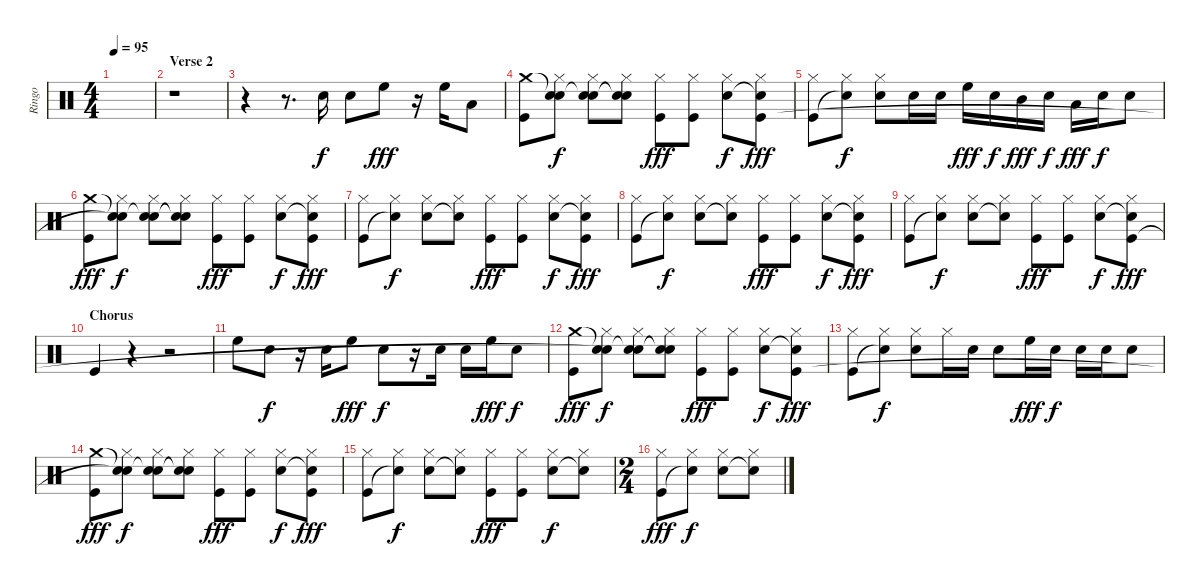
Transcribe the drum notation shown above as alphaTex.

\track ("Ringo" "Ringo") {instrument percussion}
\staff {score}
\articulation defaults
\ts (4 4)
\tempo 95
\clef neutral
\ks c
|
\section ("" "Verse 2")
r.1 |
r.4 r.8{d} "Electric Snare (hit)".16{dy f} "Electric Snare (hit)".8 "High Floor Tom (hit)".8{dy fff} r.16 "High Floor Tom (hit)".16 "Low Floor Tom (hit)".8 |
("Crash medium (hit)" "Kick (hit)").8 ("Snare (hit)"{t} "Hi-Hat (closed)" "Snare (hit)").8{dy f} ("Snare (hit)"{t} "Hi-Hat (closed)" "Electric Snare (hit)").8 ("Snare (hit)"{t} "Hi-Hat (closed)" "Snare (hit)"{t}).8 ("Hi-Hat (closed)" "Kick (hit)").8{dy fff} ("Hi-Hat (closed)" "Kick (hit)").8 ("Hi-Hat (closed)" "Electric Snare (hit)").8{dy f} ("Hi-Hat (closed)" "Snare (hit)"{t} "Kick (hit)").8{dy fff} |
("Hi-Hat (closed)" "Kick (hit)").8 ("Hi-Hat (closed)" "Snare (hit)"{t}).8{dy f} ("Hi-Hat (closed)" "Electric Snare (hit)").8 "Electric Snare (hit)".16 "Electric Snare (hit)".16 "High Floor Tom (hit)".16{dy fff} "Electric Snare (hit)".16{dy f} "Mid Tom (hit)".16{dy fff} "Electric Snare (hit)".16{dy f} "Low Floor Tom (hit)".16{dy fff} "Electric Snare (hit)".16{dy f} "Electric Snare (hit)".8 |
("Crash medium (hit)" "Kick (hit)").8{dy fff} ("Snare (hit)"{t} "Hi-Hat (closed)" "Snare (hit)"{t}).8{dy f} ("Snare (hit)"{t} "Hi-Hat (closed)" "Electric Snare (hit)").8 ("Snare (hit)"{t} "Hi-Hat (closed)" "Snare (hit)"{t}).8 ("Hi-Hat (closed)" "Kick (hit)").8{dy fff} ("Hi-Hat (closed)" "Kick (hit)").8 ("Hi-Hat (closed)" "Electric Snare (hit)").8{dy f} ("Hi-Hat (closed)" "Snare (hit)"{t} "Kick (hit)").8{dy fff} |
("Hi-Hat (closed)" "Kick (hit)").8 ("Hi-Hat (closed)" "Snare (hit)"{t}).8{dy f} ("Hi-Hat (closed)" "Electric Snare (hit)").8 ("Hi-Hat (closed)" "Snare (hit)"{t}).8 ("Hi-Hat (closed)" "Kick (hit)").8{dy fff} ("Hi-Hat (closed)" "Kick (hit)").8 ("Hi-Hat (closed)" "Electric Snare (hit)").8{dy f} ("Hi-Hat (closed)" "Snare (hit)"{t} "Kick (hit)").8{dy fff} |
("Hi-Hat (closed)" "Kick (hit)").8 ("Hi-Hat (closed)" "Snare (hit)"{t}).8{dy f} ("Hi-Hat (closed)" "Electric Snare (hit)").8 ("Hi-Hat (closed)" "Snare (hit)"{t}).8 ("Hi-Hat (closed)" "Kick (hit)").8{dy fff} ("Hi-Hat (closed)" "Kick (hit)").8 ("Hi-Hat (closed)" "Electric Snare (hit)").8{dy f} ("Hi-Hat (closed)" "Snare (hit)"{t} "Kick (hit)").8{dy fff} |
("Hi-Hat (closed)" "Kick (hit)").8 ("Hi-Hat (closed)" "Snare (hit)"{t}).8{dy f} ("Hi-Hat (closed)" "Electric Snare (hit)").8 ("Hi-Hat (closed)" "Snare (hit)"{t}).8 ("Hi-Hat (closed)" "Kick (hit)").8{dy fff} ("Hi-Hat (closed)" "Kick (hit)").8 ("Hi-Hat (closed)" "Electric Snare (hit)").8{dy f} ("Hi-Hat (closed)" "Snare (hit)"{t} "Kick (hit)").8{dy fff} |
\section ("" "Chorus")
"Kick (hit)".4 r.4 r.2 |
"High Floor Tom (hit)".8 "Snare (hit) 2".8{dy f} r.16 "Snare (hit) 2".16 "High Floor Tom (hit)".8{dy fff} "Snare (hit) 2".8{dy f} r.16 "Snare (hit) 2".16 "Snare (hit) 2".16 "High Floor Tom (hit)".16{dy fff} "Snare (hit) 2".8{dy f} |
("Crash medium (hit)" "Kick (hit)").8{dy fff} ("Snare (hit)"{t} "Hi-Hat (closed)" "Snare (hit)"{t}).8{dy f} ("Snare (hit)"{t} "Hi-Hat (closed)" "Electric Snare (hit)").8 ("Snare (hit)"{t} "Hi-Hat (closed)" "Snare (hit)"{t}).8 ("Hi-Hat (closed)" "Kick (hit)").8{dy fff} ("Hi-Hat (closed)" "Kick (hit)").8 ("Hi-Hat (closed)" "Electric Snare (hit)").8{dy f} ("Hi-Hat (closed)" "Snare (hit)"{t} "Kick (hit)").8{dy fff} |
("Hi-Hat (closed)" "Kick (hit)").8 ("Hi-Hat (closed)" "Snare (hit)"{t}).8{dy f} ("Hi-Hat (closed)" "Electric Snare (hit)").8 "Hi-Hat (closed)".16 "Electric Snare (hit)".16 "Electric Snare (hit)".8 "High Floor Tom (hit)".16{dy fff} "Electric Snare (hit)".16{dy f} "Electric Snare (hit)".16 "Electric Snare (hit)".16 "Electric Snare (hit)".8 |
("Crash medium (hit)" "Kick (hit)").8{dy fff} ("Snare (hit)"{t} "Hi-Hat (closed)" "Snare (hit)"{t}).8{dy f} ("Snare (hit)"{t} "Hi-Hat (closed)" "Electric Snare (hit)").8 ("Snare (hit)"{t} "Hi-Hat (closed)" "Snare (hit)"{t}).8 ("Hi-Hat (closed)" "Kick (hit)").8{dy fff} ("Hi-Hat (closed)" "Kick (hit)").8 ("Hi-Hat (closed)" "Electric Snare (hit)").8{dy f} ("Hi-Hat (closed)" "Snare (hit)"{t} "Kick (hit)").8{dy fff} |
("Hi-Hat (closed)" "Kick (hit)").8 ("Hi-Hat (closed)" "Snare (hit)"{t}).8{dy f} ("Hi-Hat (closed)" "Electric Snare (hit)").8 ("Hi-Hat (closed)" "Snare (hit)"{t}).8 ("Hi-Hat (closed)" "Kick (hit)").8{dy fff} ("Hi-Hat (closed)" "Kick (hit)").8 ("Hi-Hat (closed)" "Electric Snare (hit)").8{dy f} ("Hi-Hat (closed)" "Snare (hit)"{t}).8 |
\ts (2 4)
("Hi-Hat (closed)" "Kick (hit)").8{dy fff} ("Hi-Hat (closed)" "Snare (hit)"{t}).8{dy f} ("Hi-Hat (closed)" "Electric Snare (hit)").8 ("Hi-Hat (closed)" "Snare (hit)"{t}).8
